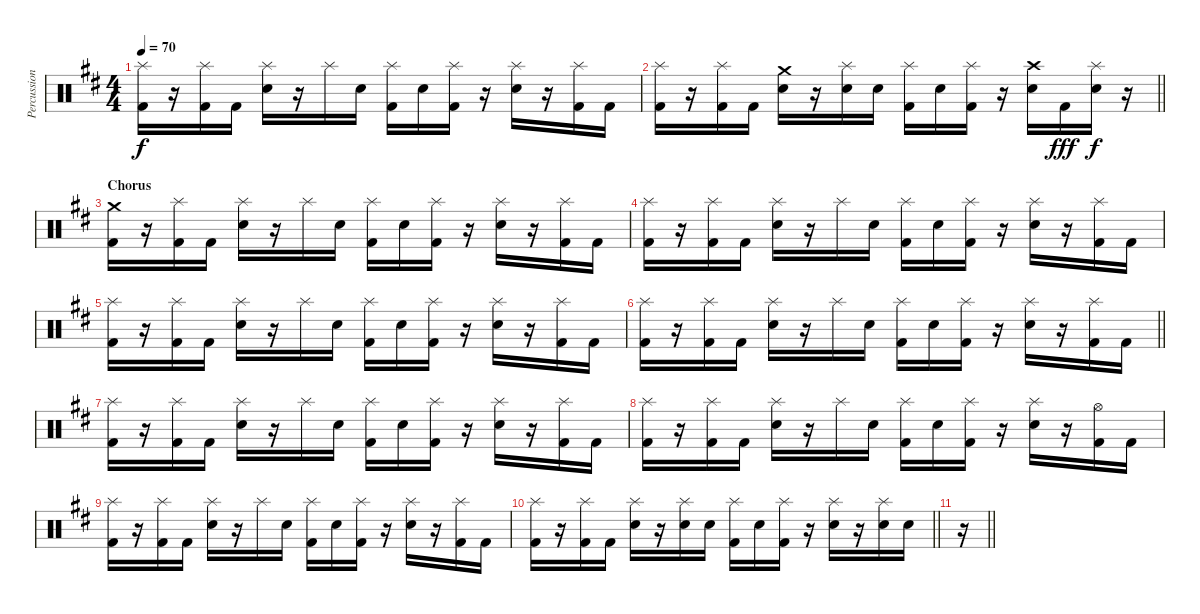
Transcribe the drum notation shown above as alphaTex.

\track ("Percussion" "Percussion") {instrument percussion}
\staff {score}
\articulation defaults
\ts (4 4)
\tempo 70
\clef neutral
\ks d
("Splash (hit)" "Kick (hit) 2").16{dy f} r.16 ("Splash (hit)" "Kick (hit) 2").16 "Kick (hit) 2".16 ("Splash (hit)" "Snare (hit) 2").16 r.16 "Splash (hit)".16 "Snare (hit) 2".16 ("Splash (hit)" "Kick (hit) 2").16 "Snare (hit) 2".16 ("Splash (hit)" "Kick (hit) 2").16 r.16 ("Splash (hit)" "Snare (hit) 2").16 r.16 ("Splash (hit)" "Kick (hit) 2").16 "Kick (hit) 2".16 |
\barLineRight lightlight
("Splash (hit)" "Kick (hit) 2").16 r.16 ("Splash (hit)" "Kick (hit) 2").16 "Kick (hit) 2".16 ("Crash medium (hit)" "Snare (hit) 2").16 r.16 ("Splash (hit)" "Snare (hit) 2").16 "Snare (hit) 2".16 ("Splash (hit)" "Kick (hit) 2").16 "Snare (hit) 2".16 ("Splash (hit)" "Kick (hit) 2").16 r.16 ("Crash high (hit)" "Snare (hit) 2").16 "Kick (hit) 2".16{dy fff} ("Splash (hit)" "Snare (hit) 2").16{dy f} r.16 |
\section ("" "Chorus")
("Crash medium (hit)" "Kick (hit) 2").16 r.16 ("Splash (hit)" "Kick (hit) 2").16 "Kick (hit) 2".16 ("Splash (hit)" "Snare (hit) 2").16 r.16 "Splash (hit)".16 "Snare (hit) 2".16 ("Splash (hit)" "Kick (hit) 2").16 "Snare (hit) 2".16 ("Splash (hit)" "Kick (hit) 2").16 r.16 ("Splash (hit)" "Snare (hit) 2").16 r.16 ("Splash (hit)" "Kick (hit) 2").16 "Kick (hit) 2".16 |
("Splash (hit)" "Kick (hit) 2").16 r.16 ("Splash (hit)" "Kick (hit) 2").16 "Kick (hit) 2".16 ("Splash (hit)" "Snare (hit) 2").16 r.16 "Splash (hit)".16 "Snare (hit) 2".16 ("Splash (hit)" "Kick (hit) 2").16 "Snare (hit) 2".16 ("Splash (hit)" "Kick (hit) 2").16 r.16 ("Splash (hit)" "Snare (hit) 2").16 r.16 ("Splash (hit)" "Kick (hit) 2").16 "Kick (hit) 2".16 |
("Splash (hit)" "Kick (hit) 2").16 r.16 ("Splash (hit)" "Kick (hit) 2").16 "Kick (hit) 2".16 ("Splash (hit)" "Snare (hit) 2").16 r.16 "Splash (hit)".16 "Snare (hit) 2".16 ("Splash (hit)" "Kick (hit) 2").16 "Snare (hit) 2".16 ("Splash (hit)" "Kick (hit) 2").16 r.16 ("Splash (hit)" "Snare (hit) 2").16 r.16 ("Splash (hit)" "Kick (hit) 2").16 "Kick (hit) 2".16 |
\barLineRight lightlight
("Splash (hit)" "Kick (hit) 2").16 r.16 ("Splash (hit)" "Kick (hit) 2").16 "Kick (hit) 2".16 ("Splash (hit)" "Snare (hit) 2").16 r.16 "Splash (hit)".16 "Snare (hit) 2".16 ("Splash (hit)" "Kick (hit) 2").16 "Snare (hit) 2".16 ("Splash (hit)" "Kick (hit) 2").16 r.16 ("Splash (hit)" "Snare (hit) 2").16 r.16 ("Splash (hit)" "Kick (hit) 2").16 "Kick (hit) 2".16 |
("Splash (hit)" "Kick (hit) 2").16 r.16 ("Splash (hit)" "Kick (hit) 2").16 "Kick (hit) 2".16 ("Splash (hit)" "Snare (hit) 2").16 r.16 "Splash (hit)".16 "Snare (hit) 2".16 ("Splash (hit)" "Kick (hit) 2").16 "Snare (hit) 2".16 ("Splash (hit)" "Kick (hit) 2").16 r.16 ("Splash (hit)" "Snare (hit) 2").16 r.16 ("Splash (hit)" "Kick (hit) 2").16 "Kick (hit) 2".16 |
("Splash (hit)" "Kick (hit) 2").16 r.16 ("Splash (hit)" "Kick (hit) 2").16 "Kick (hit) 2".16 ("Splash (hit)" "Snare (hit) 2").16 r.16 "Splash (hit)".16 "Snare (hit) 2".16 ("Splash (hit)" "Kick (hit) 2").16 "Snare (hit) 2".16 ("Splash (hit)" "Kick (hit) 2").16 r.16 ("Splash (hit)" "Snare (hit) 2").16 r.16 ("Hi-Hat (open)" "Kick (hit) 2").16 "Kick (hit) 2".16 |
("Splash (hit)" "Kick (hit) 2").16 r.16 ("Splash (hit)" "Kick (hit) 2").16 "Kick (hit) 2".16 ("Splash (hit)" "Snare (hit) 2").16 r.16 "Splash (hit)".16 "Snare (hit) 2".16 ("Splash (hit)" "Kick (hit) 2").16 "Snare (hit) 2".16 ("Splash (hit)" "Kick (hit) 2").16 r.16 ("Splash (hit)" "Snare (hit) 2").16 r.16 ("Splash (hit)" "Kick (hit) 2").16 "Kick (hit) 2".16 |
\barLineRight lightlight
("Splash (hit)" "Kick (hit) 2").16 r.16 ("Splash (hit)" "Kick (hit) 2").16 "Kick (hit) 2".16 ("Splash (hit)" "Snare (hit) 2").16 r.16 ("Splash (hit)" "Snare (hit) 2").16 "Snare (hit) 2".16 ("Splash (hit)" "Kick (hit) 2").16 "Snare (hit) 2".16 ("Splash (hit)" "Kick (hit) 2").16 r.16 ("Splash (hit)" "Snare (hit) 2").16 r.16 ("Splash (hit)" "Snare (hit) 2").16 "Snare (hit) 2".16 |
\barLineRight lightlight
r.16
